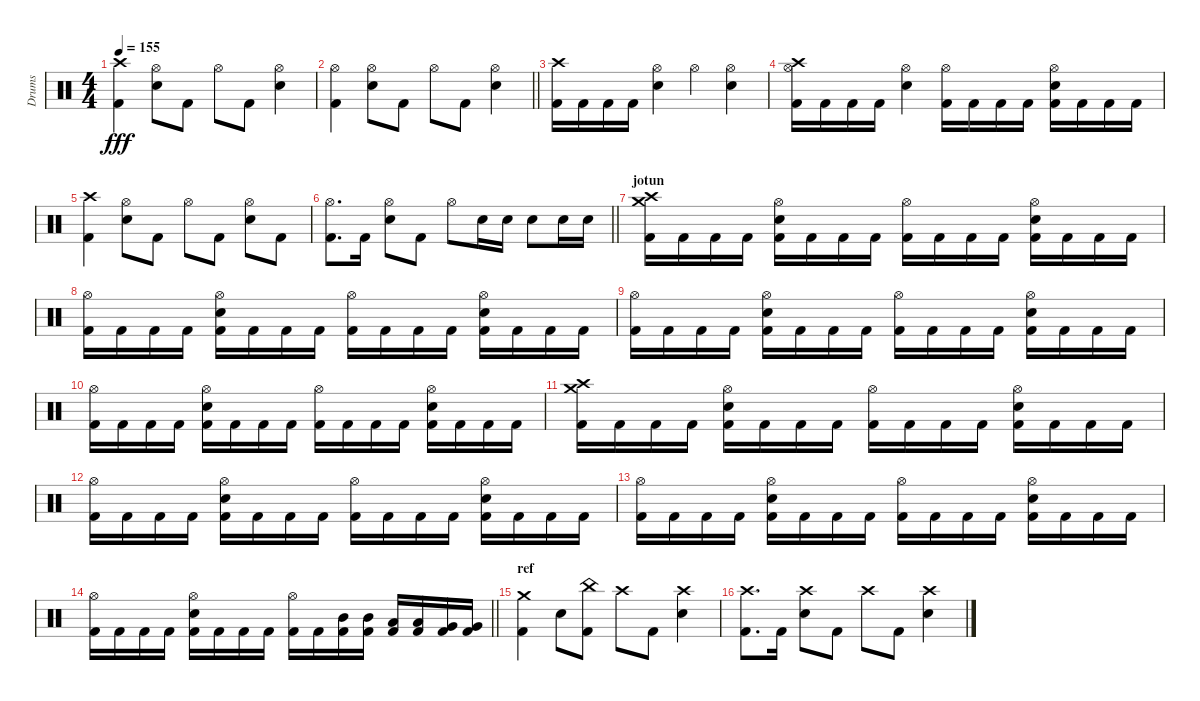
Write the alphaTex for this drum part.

\track ("Drums" "Drums") {instrument percussion}
\staff {score}
\articulation defaults
\ts (4 4)
\tempo 155
\clef neutral
\ks c
("Crash high (hit)" "Kick (hit) 2").4{dy fff} ("Snare (hit) 2" "Hi-Hat (open)").8 "Kick (hit) 2".8 "Hi-Hat (open)".8 "Kick (hit) 2".8 ("Snare (hit) 2" "Hi-Hat (open)").4 |
\barLineRight lightlight
("Hi-Hat (open)" "Kick (hit) 2").4 ("Snare (hit) 2" "Hi-Hat (open)").8 "Kick (hit) 2".8 "Hi-Hat (open)".8 "Kick (hit) 2".8 ("Snare (hit) 2" "Hi-Hat (open)").4 |
("Crash high (hit)" "Kick (hit) 2").16 "Kick (hit) 2".16 "Kick (hit) 2".16 "Kick (hit) 2".16 ("Snare (hit) 2" "Hi-Hat (open)").4 "Hi-Hat (open)".4 ("Snare (hit) 2" "Hi-Hat (open)").4 |
("Crash high (hit)" "Hi-Hat (open)" "Kick (hit) 2").16 "Kick (hit) 2".16 "Kick (hit) 2".16 "Kick (hit) 2".16 ("Snare (hit) 2" "Hi-Hat (open)").4 ("Hi-Hat (open)" "Kick (hit) 2").16 "Kick (hit) 2".16 "Kick (hit) 2".16 "Kick (hit) 2".16 ("Snare (hit) 2" "Hi-Hat (open)" "Kick (hit) 2").16 "Kick (hit) 2".16 "Kick (hit) 2".16 "Kick (hit) 2".16 |
("Crash high (hit)" "Kick (hit) 2").4 ("Snare (hit) 2" "Hi-Hat (open)").8 "Kick (hit) 2".8 "Hi-Hat (open)".8 "Kick (hit) 2".8 ("Snare (hit) 2" "Hi-Hat (open)").8 "Kick (hit) 2".8 |
\barLineRight lightlight
("Hi-Hat (open)" "Kick (hit) 2").8{d} "Kick (hit) 2".16 ("Snare (hit) 2" "Hi-Hat (open)").8 "Kick (hit) 2".8 "Hi-Hat (open)".8 "Snare (hit) 2".16 "Snare (hit) 2".16 "Snare (hit) 2".8 "Snare (hit) 2".16 "Snare (hit) 2".16 |
\section ("" "jotun")
("Crash high (hit)" "Crash medium (hit)" "Kick (hit) 2").16 "Kick (hit) 2".16 "Kick (hit) 2".16 "Kick (hit) 2".16 ("Snare (hit) 2" "Hi-Hat (open)" "Kick (hit) 2").16 "Kick (hit) 2".16 "Kick (hit) 2".16 "Kick (hit) 2".16 ("Hi-Hat (open)" "Kick (hit) 2").16 "Kick (hit) 2".16 "Kick (hit) 2".16 "Kick (hit) 2".16 ("Snare (hit) 2" "Hi-Hat (open)" "Kick (hit) 2").16 "Kick (hit) 2".16 "Kick (hit) 2".16 "Kick (hit) 2".16 |
("Hi-Hat (open)" "Kick (hit) 2").16 "Kick (hit) 2".16 "Kick (hit) 2".16 "Kick (hit) 2".16 ("Snare (hit) 2" "Hi-Hat (open)" "Kick (hit) 2").16 "Kick (hit) 2".16 "Kick (hit) 2".16 "Kick (hit) 2".16 ("Hi-Hat (open)" "Kick (hit) 2").16 "Kick (hit) 2".16 "Kick (hit) 2".16 "Kick (hit) 2".16 ("Snare (hit) 2" "Hi-Hat (open)" "Kick (hit) 2").16 "Kick (hit) 2".16 "Kick (hit) 2".16 "Kick (hit) 2".16 |
("Hi-Hat (open)" "Kick (hit) 2").16 "Kick (hit) 2".16 "Kick (hit) 2".16 "Kick (hit) 2".16 ("Snare (hit) 2" "Hi-Hat (open)" "Kick (hit) 2").16 "Kick (hit) 2".16 "Kick (hit) 2".16 "Kick (hit) 2".16 ("Hi-Hat (open)" "Kick (hit) 2").16 "Kick (hit) 2".16 "Kick (hit) 2".16 "Kick (hit) 2".16 ("Snare (hit) 2" "Hi-Hat (open)" "Kick (hit) 2").16 "Kick (hit) 2".16 "Kick (hit) 2".16 "Kick (hit) 2".16 |
("Hi-Hat (open)" "Kick (hit) 2").16 "Kick (hit) 2".16 "Kick (hit) 2".16 "Kick (hit) 2".16 ("Snare (hit) 2" "Hi-Hat (open)" "Kick (hit) 2").16 "Kick (hit) 2".16 "Kick (hit) 2".16 "Kick (hit) 2".16 ("Hi-Hat (open)" "Kick (hit) 2").16 "Kick (hit) 2".16 "Kick (hit) 2".16 "Kick (hit) 2".16 ("Snare (hit) 2" "Hi-Hat (open)" "Kick (hit) 2").16 "Kick (hit) 2".16 "Kick (hit) 2".16 "Kick (hit) 2".16 |
("Crash high (hit)" "Crash medium (hit)" "Kick (hit) 2").16 "Kick (hit) 2".16 "Kick (hit) 2".16 "Kick (hit) 2".16 ("Snare (hit) 2" "Hi-Hat (open)" "Kick (hit) 2").16 "Kick (hit) 2".16 "Kick (hit) 2".16 "Kick (hit) 2".16 ("Hi-Hat (open)" "Kick (hit) 2").16 "Kick (hit) 2".16 "Kick (hit) 2".16 "Kick (hit) 2".16 ("Snare (hit) 2" "Hi-Hat (open)" "Kick (hit) 2").16 "Kick (hit) 2".16 "Kick (hit) 2".16 "Kick (hit) 2".16 |
("Hi-Hat (open)" "Kick (hit) 2").16 "Kick (hit) 2".16 "Kick (hit) 2".16 "Kick (hit) 2".16 ("Snare (hit) 2" "Hi-Hat (open)" "Kick (hit) 2").16 "Kick (hit) 2".16 "Kick (hit) 2".16 "Kick (hit) 2".16 ("Hi-Hat (open)" "Kick (hit) 2").16 "Kick (hit) 2".16 "Kick (hit) 2".16 "Kick (hit) 2".16 ("Snare (hit) 2" "Hi-Hat (open)" "Kick (hit) 2").16 "Kick (hit) 2".16 "Kick (hit) 2".16 "Kick (hit) 2".16 |
("Hi-Hat (open)" "Kick (hit) 2").16 "Kick (hit) 2".16 "Kick (hit) 2".16 "Kick (hit) 2".16 ("Snare (hit) 2" "Hi-Hat (open)" "Kick (hit) 2").16 "Kick (hit) 2".16 "Kick (hit) 2".16 "Kick (hit) 2".16 ("Hi-Hat (open)" "Kick (hit) 2").16 "Kick (hit) 2".16 "Kick (hit) 2".16 "Kick (hit) 2".16 ("Snare (hit) 2" "Hi-Hat (open)" "Kick (hit) 2").16 "Kick (hit) 2".16 "Kick (hit) 2".16 "Kick (hit) 2".16 |
\barLineRight lightlight
("Hi-Hat (open)" "Kick (hit) 2").16 "Kick (hit) 2".16 "Kick (hit) 2".16 "Kick (hit) 2".16 ("Snare (hit) 2" "Hi-Hat (open)" "Kick (hit) 2").16 "Kick (hit) 2".16 "Kick (hit) 2".16 "Kick (hit) 2".16 ("Hi-Hat (open)" "Kick (hit) 2").16 "Kick (hit) 2".16 ("Mid Tom (hit)" "Kick (hit) 2").16 ("Mid Tom (hit)" "Kick (hit) 2").16 ("Low Tom (hit)" "Kick (hit) 2").16 ("Low Tom (hit)" "Kick (hit) 2").16 ("Very Low Tom (hit)" "Kick (hit) 2").16 ("Very Low Tom (hit)" "Kick (hit) 2").16 |
\section ("" "ref")
("Crash medium (hit)" "Kick (hit) 2").4 "Snare (hit) 2".8 ("China (hit)" "Kick (hit) 2").8 "Crash high (hit)".8 "Kick (hit) 2".8 ("Crash high (hit)" "Snare (hit) 2").4 |
("Crash high (hit)" "Kick (hit) 2").8{d} "Kick (hit) 2".16 ("Crash high (hit)" "Snare (hit) 2").8 "Kick (hit) 2".8 "Crash high (hit)".8 "Kick (hit) 2".8 ("Crash high (hit)" "Snare (hit) 2").4
